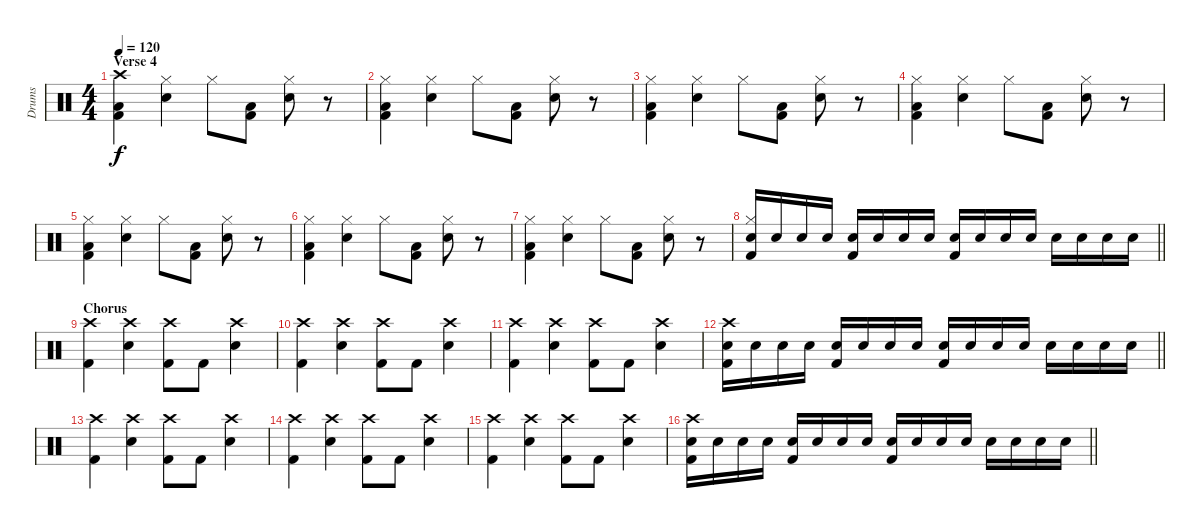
\track ("Drums" "Drums") {instrument percussion}
\staff {score}
\articulation defaults
\ts (4 4)
\section ("" "Verse 4")
\tempo 120
\clef neutral
\ks c
("Crash high (hit)" "Low Floor Tom (hit)" "Kick (hit) 2").4{dy f} ("Hi-Hat (closed)" "Electric Snare (hit)").4 "Hi-Hat (closed)".8 ("Low Floor Tom (hit)" "Kick (hit) 2").8 ("Hi-Hat (closed)" "Electric Snare (hit)").8 r.8 |
("Hi-Hat (closed)" "Low Floor Tom (hit)" "Kick (hit) 2").4 ("Hi-Hat (closed)" "Electric Snare (hit)").4 "Hi-Hat (closed)".8 ("Low Floor Tom (hit)" "Kick (hit) 2").8 ("Hi-Hat (closed)" "Electric Snare (hit)").8 r.8 |
("Hi-Hat (closed)" "Low Floor Tom (hit)" "Kick (hit) 2").4 ("Hi-Hat (closed)" "Electric Snare (hit)").4 "Hi-Hat (closed)".8 ("Low Floor Tom (hit)" "Kick (hit) 2").8 ("Hi-Hat (closed)" "Electric Snare (hit)").8 r.8 |
("Hi-Hat (closed)" "Low Floor Tom (hit)" "Kick (hit) 2").4 ("Hi-Hat (closed)" "Electric Snare (hit)").4 "Hi-Hat (closed)".8 ("Low Floor Tom (hit)" "Kick (hit) 2").8 ("Hi-Hat (closed)" "Electric Snare (hit)").8 r.8 |
("Hi-Hat (closed)" "Low Floor Tom (hit)" "Kick (hit) 2").4 ("Hi-Hat (closed)" "Electric Snare (hit)").4 "Hi-Hat (closed)".8 ("Low Floor Tom (hit)" "Kick (hit) 2").8 ("Hi-Hat (closed)" "Electric Snare (hit)").8 r.8 |
("Hi-Hat (closed)" "Low Floor Tom (hit)" "Kick (hit) 2").4 ("Hi-Hat (closed)" "Electric Snare (hit)").4 "Hi-Hat (closed)".8 ("Low Floor Tom (hit)" "Kick (hit) 2").8 ("Hi-Hat (closed)" "Electric Snare (hit)").8 r.8 |
("Hi-Hat (closed)" "Low Floor Tom (hit)" "Kick (hit) 2").4 ("Hi-Hat (closed)" "Electric Snare (hit)").4 "Hi-Hat (closed)".8 ("Low Floor Tom (hit)" "Kick (hit) 2").8 ("Hi-Hat (closed)" "Electric Snare (hit)").8 r.8 |
\barLineRight lightlight
("Hi-Hat (closed)" "Electric Snare (hit)" "Kick (hit) 2").16 "Electric Snare (hit)".16 "Electric Snare (hit)".16 "Electric Snare (hit)".16 ("Electric Snare (hit)" "Kick (hit) 2").16 "Electric Snare (hit)".16 "Electric Snare (hit)".16 "Electric Snare (hit)".16 ("Electric Snare (hit)" "Kick (hit) 2").16 "Electric Snare (hit)".16 "Electric Snare (hit)".16 "Electric Snare (hit)".16 "Electric Snare (hit)".16 "Electric Snare (hit)".16 "Electric Snare (hit)".16 "Electric Snare (hit)".16 |
\section ("" "Chorus")
("Crash high (hit)" "Kick (hit) 2").4 ("Crash high (hit)" "Electric Snare (hit)").4 ("Crash high (hit)" "Kick (hit) 2").8 "Kick (hit) 2".8 ("Crash high (hit)" "Electric Snare (hit)").4 |
("Crash high (hit)" "Kick (hit) 2").4 ("Crash high (hit)" "Electric Snare (hit)").4 ("Crash high (hit)" "Kick (hit) 2").8 "Kick (hit) 2".8 ("Crash high (hit)" "Electric Snare (hit)").4 |
("Crash high (hit)" "Kick (hit) 2").4 ("Crash high (hit)" "Electric Snare (hit)").4 ("Crash high (hit)" "Kick (hit) 2").8 "Kick (hit) 2".8 ("Crash high (hit)" "Electric Snare (hit)").4 |
\barLineRight lightlight
("Crash high (hit)" "Electric Snare (hit)" "Kick (hit) 2").16 "Electric Snare (hit)".16 "Electric Snare (hit)".16 "Electric Snare (hit)".16 ("Electric Snare (hit)" "Kick (hit) 2").16 "Electric Snare (hit)".16 "Electric Snare (hit)".16 "Electric Snare (hit)".16 ("Electric Snare (hit)" "Kick (hit) 2").16 "Electric Snare (hit)".16 "Electric Snare (hit)".16 "Electric Snare (hit)".16 "Electric Snare (hit)".16 "Electric Snare (hit)".16 "Electric Snare (hit)".16 "Electric Snare (hit)".16 |
("Crash high (hit)" "Kick (hit) 2").4 ("Crash high (hit)" "Electric Snare (hit)").4 ("Crash high (hit)" "Kick (hit) 2").8 "Kick (hit) 2".8 ("Crash high (hit)" "Electric Snare (hit)").4 |
("Crash high (hit)" "Kick (hit) 2").4 ("Crash high (hit)" "Electric Snare (hit)").4 ("Crash high (hit)" "Kick (hit) 2").8 "Kick (hit) 2".8 ("Crash high (hit)" "Electric Snare (hit)").4 |
("Crash high (hit)" "Kick (hit) 2").4 ("Crash high (hit)" "Electric Snare (hit)").4 ("Crash high (hit)" "Kick (hit) 2").8 "Kick (hit) 2".8 ("Crash high (hit)" "Electric Snare (hit)").4 |
\barLineRight lightlight
("Crash high (hit)" "Electric Snare (hit)" "Kick (hit) 2").16 "Electric Snare (hit)".16 "Electric Snare (hit)".16 "Electric Snare (hit)".16 ("Electric Snare (hit)" "Kick (hit) 2").16 "Electric Snare (hit)".16 "Electric Snare (hit)".16 "Electric Snare (hit)".16 ("Electric Snare (hit)" "Kick (hit) 2").16 "Electric Snare (hit)".16 "Electric Snare (hit)".16 "Electric Snare (hit)".16 "Electric Snare (hit)".16 "Electric Snare (hit)".16 "Electric Snare (hit)".16 "Electric Snare (hit)".16
